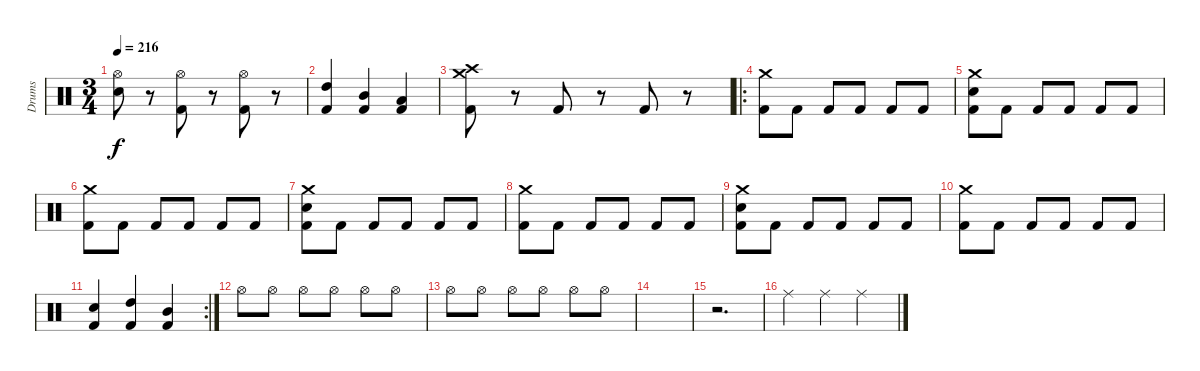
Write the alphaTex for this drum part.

\track ("Drums" "Drums") {instrument percussion}
\staff {score}
\articulation defaults
\ts (3 4)
\tempo 216
\clef neutral
\ks c
("Hi-Hat (open)" "Electric Snare (hit)").8{dy f} r.8 ("Hi-Hat (open)" "Kick (hit) 2").8 r.8 ("Hi-Hat (open)" "Kick (hit) 2").8 r.8 |
("High Tom (hit)" "Kick (hit) 2").4 ("Mid Tom (hit)" "Kick (hit) 2").4 ("Low Tom (hit)" "Kick (hit) 2").4 |
("Crash high (hit)" "Crash medium (hit)" "Kick (hit) 2").8 r.8 "Kick (hit) 2".8 r.8 "Kick (hit) 2".8 r.8 |
\ro
("Crash medium (hit)" "Kick (hit) 2").8 "Kick (hit) 2".8 "Kick (hit) 2".8 "Kick (hit) 2".8 "Kick (hit) 2".8 "Kick (hit) 2".8 |
("Crash medium (hit)" "Electric Snare (hit)" "Kick (hit) 2").8 "Kick (hit) 2".8 "Kick (hit) 2".8 "Kick (hit) 2".8 "Kick (hit) 2".8 "Kick (hit) 2".8 |
("Crash medium (hit)" "Kick (hit) 2").8 "Kick (hit) 2".8 "Kick (hit) 2".8 "Kick (hit) 2".8 "Kick (hit) 2".8 "Kick (hit) 2".8 |
("Crash medium (hit)" "Electric Snare (hit)" "Kick (hit) 2").8 "Kick (hit) 2".8 "Kick (hit) 2".8 "Kick (hit) 2".8 "Kick (hit) 2".8 "Kick (hit) 2".8 |
("Crash medium (hit)" "Kick (hit) 2").8 "Kick (hit) 2".8 "Kick (hit) 2".8 "Kick (hit) 2".8 "Kick (hit) 2".8 "Kick (hit) 2".8 |
("Crash medium (hit)" "Electric Snare (hit)" "Kick (hit) 2").8 "Kick (hit) 2".8 "Kick (hit) 2".8 "Kick (hit) 2".8 "Kick (hit) 2".8 "Kick (hit) 2".8 |
("Crash medium (hit)" "Kick (hit) 2").8 "Kick (hit) 2".8 "Kick (hit) 2".8 "Kick (hit) 2".8 "Kick (hit) 2".8 "Kick (hit) 2".8 |
\rc 2
("Electric Snare (hit)" "Kick (hit) 2").4 ("High Tom (hit)" "Kick (hit) 2").4 ("Mid Tom (hit)" "Kick (hit) 2").4 |
"Hi-Hat (open)".8{volume 1} "Hi-Hat (open)".8{volume 2} "Hi-Hat (open)".8{volume 3} "Hi-Hat (open)".8{volume 4} "Hi-Hat (open)".8{volume 6} "Hi-Hat (open)".8{volume 7} |
"Hi-Hat (open)".8{volume 8} "Hi-Hat (open)".8{volume 9} "Hi-Hat (open)".8{volume 10} "Hi-Hat (open)".8{volume 11} "Hi-Hat (open)".8{volume 12} "Hi-Hat (open)".8{volume 13} |
|
r.2{d} |
"Ride (middle)".4 "Ride (middle)".4 "Ride (middle)".4
